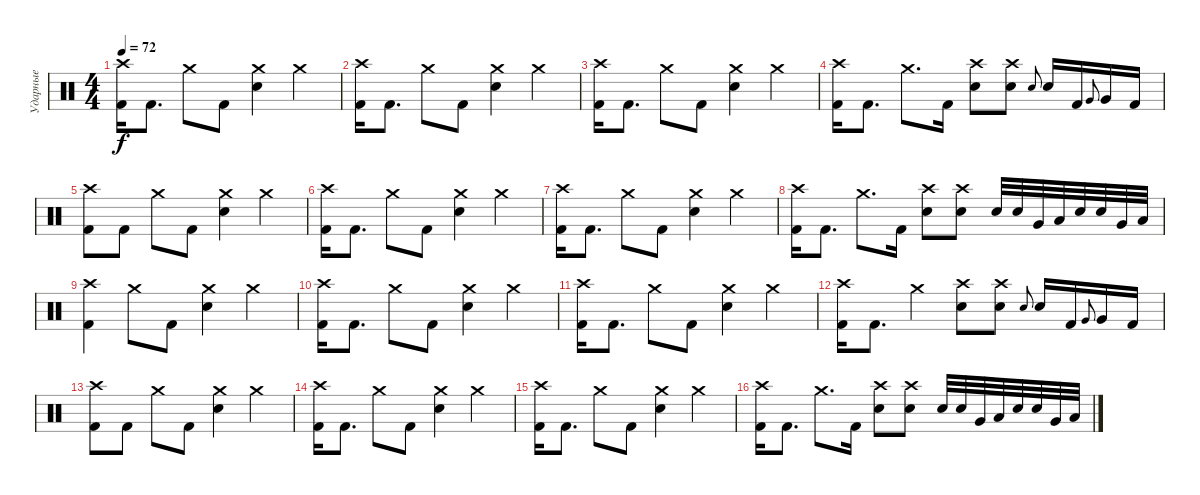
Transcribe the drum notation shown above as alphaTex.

\track ("Ударные" "Ударные") {instrument percussion}
\staff {score}
\articulation defaults
\ts (4 4)
\tempo 72
\clef neutral
\ks c
("Crash high (hit)" "Kick (hit) 2").16{dy f} "Kick (hit) 2".8{d} "Crash medium (hit)".8 "Kick (hit) 2".8 ("Crash medium (hit)" "Snare (hit) 2").4 "Crash medium (hit)".4 |
("Crash high (hit)" "Kick (hit) 2").16 "Kick (hit) 2".8{d} "Crash medium (hit)".8 "Kick (hit) 2".8 ("Crash medium (hit)" "Snare (hit) 2").4 "Crash medium (hit)".4 |
("Crash high (hit)" "Kick (hit) 2").16 "Kick (hit) 2".8{d} "Crash medium (hit)".8 "Kick (hit) 2".8 ("Crash medium (hit)" "Snare (hit) 2").4 "Crash medium (hit)".4 |
("Crash high (hit)" "Kick (hit) 2").16 "Kick (hit) 2".8{d} "Crash medium (hit)".8{d} "Kick (hit) 2".16 ("Crash high (hit)" "Snare (hit) 2").8 ("Crash high (hit)" "Snare (hit) 2").8 "Snare (hit) 2".8{gr onbeat} "Snare (hit) 2".16 "Kick (hit) 2".16 "Very Low Tom (hit)".8{gr onbeat} "Very Low Tom (hit)".16 "Kick (hit) 2".16 |
("Crash high (hit)" "Kick (hit) 2").8 "Kick (hit) 2".8 "Crash medium (hit)".8 "Kick (hit) 2".8 ("Crash medium (hit)" "Snare (hit) 2").4 "Crash medium (hit)".4 |
("Crash high (hit)" "Kick (hit) 2").16 "Kick (hit) 2".8{d} "Crash medium (hit)".8 "Kick (hit) 2".8 ("Crash medium (hit)" "Snare (hit) 2").4 "Crash medium (hit)".4 |
("Crash high (hit)" "Kick (hit) 2").16 "Kick (hit) 2".8{d} "Crash medium (hit)".8 "Kick (hit) 2".8 ("Crash medium (hit)" "Snare (hit) 2").4 "Crash medium (hit)".4 |
("Crash high (hit)" "Kick (hit) 2").16 "Kick (hit) 2".8{d} "Crash medium (hit)".8{d} "Kick (hit) 2".16 ("Crash high (hit)" "Snare (hit) 2").8 ("Crash high (hit)" "Snare (hit) 2").8 "Snare (hit) 2".32 "Snare (hit) 2".32 "Very Low Tom (hit)".32 "Low Floor Tom (hit)".32 "Snare (hit) 2".32 "Snare (hit) 2".32 "Very Low Tom (hit)".32 "Low Floor Tom (hit)".32 |
("Crash high (hit)" "Kick (hit) 2").4 "Crash medium (hit)".8 "Kick (hit) 2".8 ("Crash medium (hit)" "Snare (hit) 2").4 "Crash medium (hit)".4 |
("Crash high (hit)" "Kick (hit) 2").16 "Kick (hit) 2".8{d} "Crash medium (hit)".8 "Kick (hit) 2".8 ("Crash medium (hit)" "Snare (hit) 2").4 "Crash medium (hit)".4 |
("Crash high (hit)" "Kick (hit) 2").16 "Kick (hit) 2".8{d} "Crash medium (hit)".8 "Kick (hit) 2".8 ("Crash medium (hit)" "Snare (hit) 2").4 "Crash medium (hit)".4 |
("Crash high (hit)" "Kick (hit) 2").16 "Kick (hit) 2".8{d} "Crash medium (hit)".4 ("Crash high (hit)" "Snare (hit) 2").8 ("Crash high (hit)" "Snare (hit) 2").8 "Snare (hit) 2".8{gr onbeat} "Snare (hit) 2".16 "Kick (hit) 2".16 "Very Low Tom (hit)".8{gr onbeat} "Very Low Tom (hit)".16 "Kick (hit) 2".16 |
("Crash high (hit)" "Kick (hit) 2").8 "Kick (hit) 2".8 "Crash medium (hit)".8 "Kick (hit) 2".8 ("Crash medium (hit)" "Snare (hit) 2").4 "Crash medium (hit)".4 |
("Crash high (hit)" "Kick (hit) 2").16 "Kick (hit) 2".8{d} "Crash medium (hit)".8 "Kick (hit) 2".8 ("Crash medium (hit)" "Snare (hit) 2").4 "Crash medium (hit)".4 |
("Crash high (hit)" "Kick (hit) 2").16 "Kick (hit) 2".8{d} "Crash medium (hit)".8 "Kick (hit) 2".8 ("Crash medium (hit)" "Snare (hit) 2").4 "Crash medium (hit)".4 |
("Crash high (hit)" "Kick (hit) 2").16 "Kick (hit) 2".8{d} "Crash medium (hit)".8{d} "Kick (hit) 2".16 ("Crash high (hit)" "Snare (hit) 2").8 ("Crash high (hit)" "Snare (hit) 2").8 "Snare (hit) 2".32 "Snare (hit) 2".32 "Very Low Tom (hit)".32 "Low Floor Tom (hit)".32 "Snare (hit) 2".32 "Snare (hit) 2".32 "Very Low Tom (hit)".32 "Low Floor Tom (hit)".32
